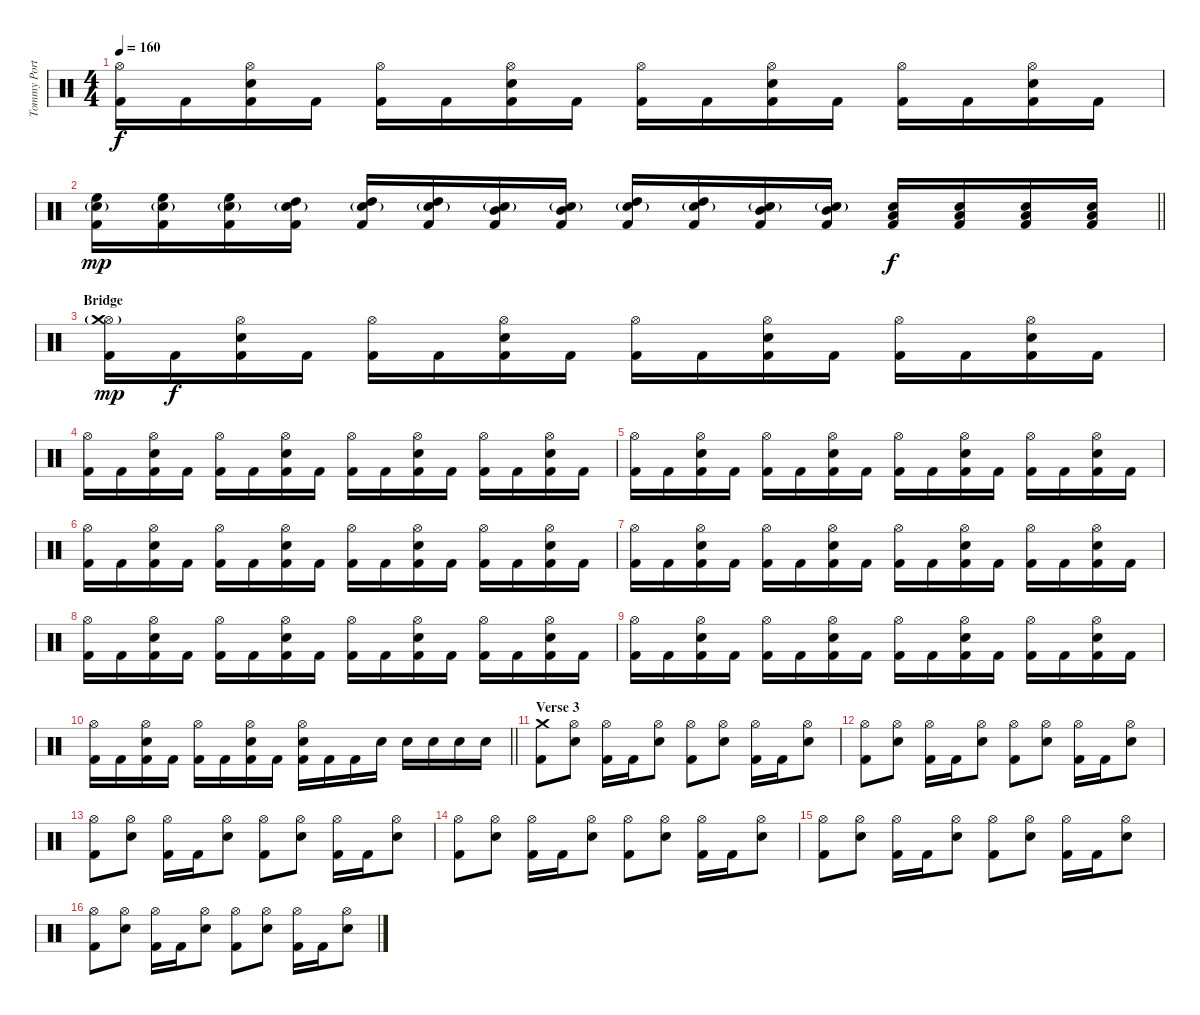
\track ("Tommy Portino" "Tommy Port") {instrument percussion}
\staff {score}
\articulation defaults
\ts (4 4)
\tempo 160
\clef neutral
\ks c
("Hi-Hat (open)" "Kick (hit) 2").16{dy f} "Kick (hit) 2".16 ("Hi-Hat (open)" "Snare (hit) 2" "Kick (hit) 2").16 "Kick (hit) 2".16 ("Hi-Hat (open)" "Kick (hit) 2").16 "Kick (hit) 2".16 ("Hi-Hat (open)" "Snare (hit) 2" "Kick (hit) 2").16 "Kick (hit) 2".16 ("Hi-Hat (open)" "Kick (hit) 2").16 "Kick (hit) 2".16 ("Hi-Hat (open)" "Snare (hit) 2" "Kick (hit) 2").16 "Kick (hit) 2".16 ("Hi-Hat (open)" "Kick (hit) 2").16 "Kick (hit) 2".16 ("Hi-Hat (open)" "Snare (hit) 2" "Kick (hit) 2").16 "Kick (hit) 2".16 |
\barLineRight lightlight
("High Floor Tom (hit)" "Snare (hit) 2"{g} "Kick (hit) 2").16{dy mp} ("High Floor Tom (hit)" "Snare (hit) 2"{g} "Kick (hit) 2").16 ("High Floor Tom (hit)" "Snare (hit) 2"{g} "Kick (hit) 2").16 ("High Tom (hit)" "Snare (hit) 2"{g} "Kick (hit) 2").16 ("High Tom (hit)" "Snare (hit) 2"{g} "Kick (hit) 2").16 ("High Tom (hit)" "Snare (hit) 2"{g} "Kick (hit) 2").16 ("Mid Tom (hit)" "Snare (hit) 2"{g} "Kick (hit) 2").16 ("Mid Tom (hit)" "Snare (hit) 2"{g} "Kick (hit) 2").16 ("High Tom (hit)" "Snare (hit) 2"{g} "Kick (hit) 2").16 ("High Tom (hit)" "Snare (hit) 2"{g} "Kick (hit) 2").16 ("Mid Tom (hit)" "Snare (hit) 2"{g} "Kick (hit) 2").16 ("Mid Tom (hit)" "Snare (hit) 2"{g} "Kick (hit) 2").16 ("Low Tom (hit)" "Snare (hit) 2" "Kick (hit) 2").16{dy f} ("Low Tom (hit)" "Snare (hit) 2" "Kick (hit) 2").16 ("Low Tom (hit)" "Snare (hit) 2" "Kick (hit) 2").16 ("Low Tom (hit)" "Snare (hit) 2" "Kick (hit) 2").16 |
\section ("" "Bridge")
("Hi-Hat (open)"{g} "Crash medium (hit)" "Kick (hit) 2").16{dy mp} "Kick (hit) 2".16{dy f} ("Hi-Hat (open)" "Snare (hit) 2" "Kick (hit) 2").16 "Kick (hit) 2".16 ("Hi-Hat (open)" "Kick (hit) 2").16 "Kick (hit) 2".16 ("Hi-Hat (open)" "Snare (hit) 2" "Kick (hit) 2").16 "Kick (hit) 2".16 ("Hi-Hat (open)" "Kick (hit) 2").16 "Kick (hit) 2".16 ("Hi-Hat (open)" "Snare (hit) 2" "Kick (hit) 2").16 "Kick (hit) 2".16 ("Hi-Hat (open)" "Kick (hit) 2").16 "Kick (hit) 2".16 ("Hi-Hat (open)" "Snare (hit) 2" "Kick (hit) 2").16 "Kick (hit) 2".16 |
("Hi-Hat (open)" "Kick (hit) 2").16 "Kick (hit) 2".16 ("Hi-Hat (open)" "Snare (hit) 2" "Kick (hit) 2").16 "Kick (hit) 2".16 ("Hi-Hat (open)" "Kick (hit) 2").16 "Kick (hit) 2".16 ("Hi-Hat (open)" "Snare (hit) 2" "Kick (hit) 2").16 "Kick (hit) 2".16 ("Hi-Hat (open)" "Kick (hit) 2").16 "Kick (hit) 2".16 ("Hi-Hat (open)" "Snare (hit) 2" "Kick (hit) 2").16 "Kick (hit) 2".16 ("Hi-Hat (open)" "Kick (hit) 2").16 "Kick (hit) 2".16 ("Hi-Hat (open)" "Snare (hit) 2" "Kick (hit) 2").16 "Kick (hit) 2".16 |
("Hi-Hat (open)" "Kick (hit) 2").16 "Kick (hit) 2".16 ("Hi-Hat (open)" "Snare (hit) 2" "Kick (hit) 2").16 "Kick (hit) 2".16 ("Hi-Hat (open)" "Kick (hit) 2").16 "Kick (hit) 2".16 ("Hi-Hat (open)" "Snare (hit) 2" "Kick (hit) 2").16 "Kick (hit) 2".16 ("Hi-Hat (open)" "Kick (hit) 2").16 "Kick (hit) 2".16 ("Hi-Hat (open)" "Snare (hit) 2" "Kick (hit) 2").16 "Kick (hit) 2".16 ("Hi-Hat (open)" "Kick (hit) 2").16 "Kick (hit) 2".16 ("Hi-Hat (open)" "Snare (hit) 2" "Kick (hit) 2").16 "Kick (hit) 2".16 |
("Hi-Hat (open)" "Kick (hit) 2").16 "Kick (hit) 2".16 ("Hi-Hat (open)" "Snare (hit) 2" "Kick (hit) 2").16 "Kick (hit) 2".16 ("Hi-Hat (open)" "Kick (hit) 2").16 "Kick (hit) 2".16 ("Hi-Hat (open)" "Snare (hit) 2" "Kick (hit) 2").16 "Kick (hit) 2".16 ("Hi-Hat (open)" "Kick (hit) 2").16 "Kick (hit) 2".16 ("Hi-Hat (open)" "Snare (hit) 2" "Kick (hit) 2").16 "Kick (hit) 2".16 ("Hi-Hat (open)" "Kick (hit) 2").16 "Kick (hit) 2".16 ("Hi-Hat (open)" "Snare (hit) 2" "Kick (hit) 2").16 "Kick (hit) 2".16 |
("Hi-Hat (open)" "Kick (hit) 2").16 "Kick (hit) 2".16 ("Hi-Hat (open)" "Snare (hit) 2" "Kick (hit) 2").16 "Kick (hit) 2".16 ("Hi-Hat (open)" "Kick (hit) 2").16 "Kick (hit) 2".16 ("Hi-Hat (open)" "Snare (hit) 2" "Kick (hit) 2").16 "Kick (hit) 2".16 ("Hi-Hat (open)" "Kick (hit) 2").16 "Kick (hit) 2".16 ("Hi-Hat (open)" "Snare (hit) 2" "Kick (hit) 2").16 "Kick (hit) 2".16 ("Hi-Hat (open)" "Kick (hit) 2").16 "Kick (hit) 2".16 ("Hi-Hat (open)" "Snare (hit) 2" "Kick (hit) 2").16 "Kick (hit) 2".16 |
("Hi-Hat (open)" "Kick (hit) 2").16 "Kick (hit) 2".16 ("Hi-Hat (open)" "Snare (hit) 2" "Kick (hit) 2").16 "Kick (hit) 2".16 ("Hi-Hat (open)" "Kick (hit) 2").16 "Kick (hit) 2".16 ("Hi-Hat (open)" "Snare (hit) 2" "Kick (hit) 2").16 "Kick (hit) 2".16 ("Hi-Hat (open)" "Kick (hit) 2").16 "Kick (hit) 2".16 ("Hi-Hat (open)" "Snare (hit) 2" "Kick (hit) 2").16 "Kick (hit) 2".16 ("Hi-Hat (open)" "Kick (hit) 2").16 "Kick (hit) 2".16 ("Hi-Hat (open)" "Snare (hit) 2" "Kick (hit) 2").16 "Kick (hit) 2".16 |
("Hi-Hat (open)" "Kick (hit) 2").16 "Kick (hit) 2".16 ("Hi-Hat (open)" "Snare (hit) 2" "Kick (hit) 2").16 "Kick (hit) 2".16 ("Hi-Hat (open)" "Kick (hit) 2").16 "Kick (hit) 2".16 ("Hi-Hat (open)" "Snare (hit) 2" "Kick (hit) 2").16 "Kick (hit) 2".16 ("Hi-Hat (open)" "Kick (hit) 2").16 "Kick (hit) 2".16 ("Hi-Hat (open)" "Snare (hit) 2" "Kick (hit) 2").16 "Kick (hit) 2".16 ("Hi-Hat (open)" "Kick (hit) 2").16 "Kick (hit) 2".16 ("Hi-Hat (open)" "Snare (hit) 2" "Kick (hit) 2").16 "Kick (hit) 2".16 |
\barLineRight lightlight
("Hi-Hat (open)" "Kick (hit) 2").16 "Kick (hit) 2".16 ("Hi-Hat (open)" "Snare (hit) 2" "Kick (hit) 2").16 "Kick (hit) 2".16 ("Hi-Hat (open)" "Kick (hit) 2").16 "Kick (hit) 2".16 ("Hi-Hat (open)" "Snare (hit) 2" "Kick (hit) 2").16 "Kick (hit) 2".16 ("Hi-Hat (open)" "Snare (hit) 2" "Kick (hit) 2").16 "Kick (hit) 2".16 "Kick (hit) 2".16 "Snare (hit) 2".16 "Snare (hit) 2".16 "Snare (hit) 2".16 "Snare (hit) 2".16 "Snare (hit) 2".16 |
\section ("" "Verse 3")
("Crash medium (hit)" "Kick (hit) 2").8 ("Hi-Hat (open)" "Snare (hit) 2").8 ("Hi-Hat (open)" "Kick (hit) 2").16 "Kick (hit) 2".16 ("Hi-Hat (open)" "Snare (hit) 2").8 ("Hi-Hat (open)" "Kick (hit) 2").8 ("Hi-Hat (open)" "Snare (hit) 2").8 ("Hi-Hat (open)" "Kick (hit) 2").16 "Kick (hit) 2".16 ("Hi-Hat (open)" "Snare (hit) 2").8 |
("Hi-Hat (open)" "Kick (hit) 2").8 ("Hi-Hat (open)" "Snare (hit) 2").8 ("Hi-Hat (open)" "Kick (hit) 2").16 "Kick (hit) 2".16 ("Hi-Hat (open)" "Snare (hit) 2").8 ("Hi-Hat (open)" "Kick (hit) 2").8 ("Hi-Hat (open)" "Snare (hit) 2").8 ("Hi-Hat (open)" "Kick (hit) 2").16 "Kick (hit) 2".16 ("Hi-Hat (open)" "Snare (hit) 2").8 |
("Hi-Hat (open)" "Kick (hit) 2").8 ("Hi-Hat (open)" "Snare (hit) 2").8 ("Hi-Hat (open)" "Kick (hit) 2").16 "Kick (hit) 2".16 ("Hi-Hat (open)" "Snare (hit) 2").8 ("Hi-Hat (open)" "Kick (hit) 2").8 ("Hi-Hat (open)" "Snare (hit) 2").8 ("Hi-Hat (open)" "Kick (hit) 2").16 "Kick (hit) 2".16 ("Hi-Hat (open)" "Snare (hit) 2").8 |
("Hi-Hat (open)" "Kick (hit) 2").8 ("Hi-Hat (open)" "Snare (hit) 2").8 ("Hi-Hat (open)" "Kick (hit) 2").16 "Kick (hit) 2".16 ("Hi-Hat (open)" "Snare (hit) 2").8 ("Hi-Hat (open)" "Kick (hit) 2").8 ("Hi-Hat (open)" "Snare (hit) 2").8 ("Hi-Hat (open)" "Kick (hit) 2").16 "Kick (hit) 2".16 ("Hi-Hat (open)" "Snare (hit) 2").8 |
("Hi-Hat (open)" "Kick (hit) 2").8 ("Hi-Hat (open)" "Snare (hit) 2").8 ("Hi-Hat (open)" "Kick (hit) 2").16 "Kick (hit) 2".16 ("Hi-Hat (open)" "Snare (hit) 2").8 ("Hi-Hat (open)" "Kick (hit) 2").8 ("Hi-Hat (open)" "Snare (hit) 2").8 ("Hi-Hat (open)" "Kick (hit) 2").16 "Kick (hit) 2".16 ("Hi-Hat (open)" "Snare (hit) 2").8 |
("Hi-Hat (open)" "Kick (hit) 2").8 ("Hi-Hat (open)" "Snare (hit) 2").8 ("Hi-Hat (open)" "Kick (hit) 2").16 "Kick (hit) 2".16 ("Hi-Hat (open)" "Snare (hit) 2").8 ("Hi-Hat (open)" "Kick (hit) 2").8 ("Hi-Hat (open)" "Snare (hit) 2").8 ("Hi-Hat (open)" "Kick (hit) 2").16 "Kick (hit) 2".16 ("Hi-Hat (open)" "Snare (hit) 2").8
